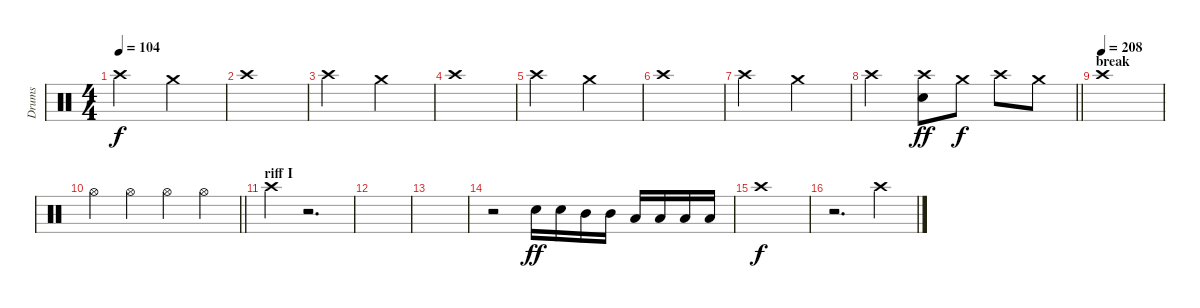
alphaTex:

\track ("Drums" "Drums") {instrument percussion}
\staff {score}
\articulation defaults
\ts (4 4)
\section ("" "")
\tempo 104
\clef neutral
\ks c "Crash high (hit)".2{dy f} "Crash medium (hit)".2
|
"Crash high (hit)".1 |
"Crash high (hit)".2 "Crash medium (hit)".2 |
"Crash high (hit)".1 |
"Crash high (hit)".2 "Crash medium (hit)".2 |
"Crash high (hit)".1 |
"Crash high (hit)".2 "Crash medium (hit)".2 |
\barLineRight lightlight "Crash high (hit)".2
("Crash high (hit)" "Snare (hit) 2").8{dy ff} "Crash medium (hit)".8{dy f} "Crash high (hit)".8 "Crash medium (hit)".8 |
\section ("" "break")
\tempo (208)
"Crash high (hit)".1 |
\barLineRight lightlight "Hi-Hat (open)".4 "Hi-Hat (open)".4 "Hi-Hat (open)".4 "Hi-Hat (open)".4
|
\section ("" "riff I")
"Crash high (hit)".4 r.2{d volume 0} |
|
|
r.2{volume 11} "Snare (hit) 2".16{dy ff} "Snare (hit) 2".16 "Mid Tom (hit)".16 "Mid Tom (hit)".16 "Low Tom (hit)".16 "Low Tom (hit)".16 "Low Tom (hit)".16 "Low Tom (hit)".16 |
"Crash high (hit)".1{dy f} |
r.2{d} "Crash high (hit)".4
